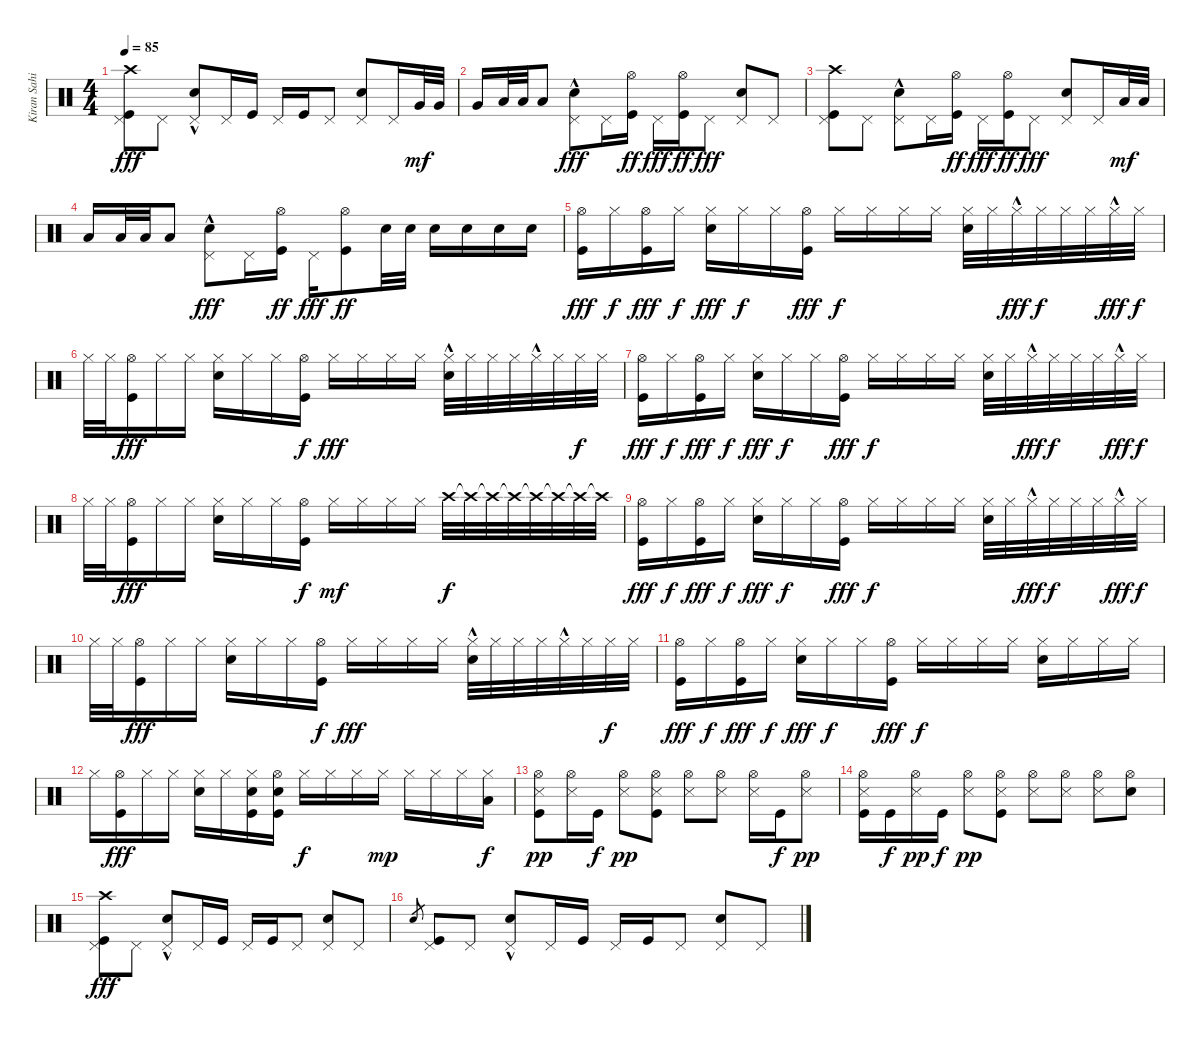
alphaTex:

\track ("Kiran Sahi - Drums" "Kiran Sahi") {instrument percussion}
\staff {score}
\articulation defaults
\ts (4 4)
\tempo 85
\clef neutral
\ks c
("Kick (hit)" "Pedal Hi-Hat (hit)" "Crash high (hit)").8{dy fff} "Pedal Hi-Hat (hit)".8 ("Pedal Hi-Hat (hit)" "Snare (hit) 2"{hac}).8 "Pedal Hi-Hat (hit)".16 "Kick (hit)".16 "Pedal Hi-Hat (hit)".16 "Kick (hit)".16 "Pedal Hi-Hat (hit)".8 ("Snare (hit) 2" "Pedal Hi-Hat (hit)").8 "Pedal Hi-Hat (hit)".16 "Very Low Tom (hit)".32{dy mf} "Very Low Tom (hit)".32 |
"Very Low Tom (hit)".16 "Low Floor Tom (hit)".32 "Low Floor Tom (hit)".32 "Low Floor Tom (hit)".8 ("Pedal Hi-Hat (hit)" "Snare (hit) 2"{hac}).8{dy fff} "Pedal Hi-Hat (hit)".16 ("Kick (hit)" "Hi-Hat (open)").16{dy ff} "Pedal Hi-Hat (hit)".16{dy fff} ("Kick (hit)" "Hi-Hat (open)").16{dy ff} "Pedal Hi-Hat (hit)".8{dy fff} ("Snare (hit) 2" "Pedal Hi-Hat (hit)").8 "Pedal Hi-Hat (hit)".8 |
("Kick (hit)" "Pedal Hi-Hat (hit)" "Crash high (hit)").8 "Pedal Hi-Hat (hit)".8 ("Pedal Hi-Hat (hit)" "Snare (hit) 2"{hac}).8 "Pedal Hi-Hat (hit)".16 ("Kick (hit)" "Hi-Hat (open)").16{dy ff} "Pedal Hi-Hat (hit)".16{dy fff} ("Kick (hit)" "Hi-Hat (open)").16{dy ff} "Pedal Hi-Hat (hit)".8{dy fff} ("Snare (hit) 2" "Pedal Hi-Hat (hit)").8 "Pedal Hi-Hat (hit)".16 "Low Floor Tom (hit)".32{dy mf} "Low Floor Tom (hit)".32 |
"Low Floor Tom (hit)".16 "Low Floor Tom (hit)".32 "Low Floor Tom (hit)".32 "Low Floor Tom (hit)".8 ("Pedal Hi-Hat (hit)" "Snare (hit) 2"{hac}).8{dy fff} "Pedal Hi-Hat (hit)".16 ("Kick (hit)" "Hi-Hat (open)").16{dy ff} "Pedal Hi-Hat (hit)".16{dy fff} ("Kick (hit)" "Hi-Hat (open)").8{dy ff} "Snare (hit) 2".32 "Snare (hit) 2".32 "Snare (hit) 2".16 "Snare (hit) 2".16 "Snare (hit) 2".16 "Snare (hit) 2".16 |
("Kick (hit)" "Hi-Hat (open)").16{dy fff} "Hi-Hat (closed)".16{dy f} ("Kick (hit)" "Hi-Hat (open)").16{dy fff} "Hi-Hat (closed)".16{dy f} ("Hi-Hat (closed)" "Snare (hit) 2").16{dy fff} "Hi-Hat (closed)".16{dy f} "Hi-Hat (closed)".16 ("Kick (hit)" "Hi-Hat (open)").16{dy fff} "Hi-Hat (closed)".16{dy f} "Hi-Hat (closed)".16 "Hi-Hat (closed)".16 "Hi-Hat (closed)".16 ("Hi-Hat (closed)" "Snare (hit) 2").32 "Hi-Hat (closed)".32 "Hi-Hat (closed)"{hac}.32{dy fff} "Hi-Hat (closed)".32{dy f} "Hi-Hat (closed)".32 "Hi-Hat (closed)".32 "Hi-Hat (closed)"{hac}.32{dy fff} "Hi-Hat (closed)".32{dy f} |
"Hi-Hat (closed)".32 "Hi-Hat (closed)".32 ("Kick (hit)" "Hi-Hat (open)").16{dy fff} "Hi-Hat (closed)".16 "Hi-Hat (closed)".16 ("Hi-Hat (closed)" "Snare (hit) 2").16 "Hi-Hat (closed)".16 "Hi-Hat (closed)".16 ("Hi-Hat (open)" "Kick (hit)").16{dy f} "Hi-Hat (closed)".16{dy fff} "Hi-Hat (closed)".16 "Hi-Hat (closed)".16 "Hi-Hat (closed)".16 ("Hi-Hat (closed)"{hac} "Snare (hit) 2").32 "Hi-Hat (closed)".32 "Hi-Hat (closed)".32 "Hi-Hat (closed)".32 "Hi-Hat (closed)"{hac}.32 "Hi-Hat (closed)".32 "Hi-Hat (closed)".32{dy f} "Hi-Hat (closed)".32 |
("Kick (hit)" "Hi-Hat (open)").16{dy fff} "Hi-Hat (closed)".16{dy f} ("Kick (hit)" "Hi-Hat (open)").16{dy fff} "Hi-Hat (closed)".16{dy f} ("Hi-Hat (closed)" "Snare (hit) 2").16{dy fff} "Hi-Hat (closed)".16{dy f} "Hi-Hat (closed)".16 ("Kick (hit)" "Hi-Hat (open)").16{dy fff} "Hi-Hat (closed)".16{dy f} "Hi-Hat (closed)".16 "Hi-Hat (closed)".16 "Hi-Hat (closed)".16 ("Hi-Hat (closed)" "Snare (hit) 2").32 "Hi-Hat (closed)".32 "Hi-Hat (closed)"{hac}.32{dy fff} "Hi-Hat (closed)".32{dy f} "Hi-Hat (closed)".32 "Hi-Hat (closed)".32 "Hi-Hat (closed)"{hac}.32{dy fff} "Hi-Hat (closed)".32{dy f} |
"Hi-Hat (closed)".32 "Hi-Hat (closed)".32 ("Kick (hit)" "Hi-Hat (open)").16{dy fff} "Hi-Hat (closed)".16 "Hi-Hat (closed)".16 ("Hi-Hat (closed)" "Snare (hit) 2").16 "Hi-Hat (closed)".16 "Hi-Hat (closed)".16 ("Hi-Hat (open)" "Kick (hit)").16{dy f} "Hi-Hat (closed)".16{dy mf} "Hi-Hat (closed)".16 "Hi-Hat (closed)".16 "Hi-Hat (closed)".16 "Crash high (hit)".32{dy f} "Crash high (hit)"{t}.32 "Crash high (hit)"{t}.32 "Crash high (hit)"{t}.32 "Crash high (hit)"{t}.32 "Crash high (hit)"{t}.32 "Crash high (hit)"{t}.32 "Crash high (hit)"{t}.32 |
("Kick (hit)" "Hi-Hat (open)").16{dy fff} "Hi-Hat (closed)".16{dy f} ("Kick (hit)" "Hi-Hat (open)").16{dy fff} "Hi-Hat (closed)".16{dy f} ("Hi-Hat (closed)" "Snare (hit) 2").16{dy fff} "Hi-Hat (closed)".16{dy f} "Hi-Hat (closed)".16 ("Kick (hit)" "Hi-Hat (open)").16{dy fff} "Hi-Hat (closed)".16{dy f} "Hi-Hat (closed)".16 "Hi-Hat (closed)".16 "Hi-Hat (closed)".16 ("Hi-Hat (closed)" "Snare (hit) 2").32 "Hi-Hat (closed)".32 "Hi-Hat (closed)"{hac}.32{dy fff} "Hi-Hat (closed)".32{dy f} "Hi-Hat (closed)".32 "Hi-Hat (closed)".32 "Hi-Hat (closed)"{hac}.32{dy fff} "Hi-Hat (closed)".32{dy f} |
"Hi-Hat (closed)".32 "Hi-Hat (closed)".32 ("Kick (hit)" "Hi-Hat (open)").16{dy fff} "Hi-Hat (closed)".16 "Hi-Hat (closed)".16 ("Hi-Hat (closed)" "Snare (hit) 2").16 "Hi-Hat (closed)".16 "Hi-Hat (closed)".16 ("Hi-Hat (open)" "Kick (hit)").16{dy f} "Hi-Hat (closed)".16{dy fff} "Hi-Hat (closed)".16 "Hi-Hat (closed)".16 "Hi-Hat (closed)".16 ("Hi-Hat (closed)"{hac} "Snare (hit) 2").32 "Hi-Hat (closed)".32 "Hi-Hat (closed)".32 "Hi-Hat (closed)".32 "Hi-Hat (closed)"{hac}.32 "Hi-Hat (closed)".32 "Hi-Hat (closed)".32{dy f} "Hi-Hat (closed)".32 |
("Kick (hit)" "Hi-Hat (open)").16{dy fff} "Hi-Hat (closed)".16{dy f} ("Kick (hit)" "Hi-Hat (open)").16{dy fff} "Hi-Hat (closed)".16{dy f} ("Hi-Hat (closed)" "Snare (hit) 2").16{dy fff} "Hi-Hat (closed)".16{dy f} "Hi-Hat (closed)".16 ("Kick (hit)" "Hi-Hat (open)").16{dy fff} "Hi-Hat (closed)".16{dy f} "Hi-Hat (closed)".16 "Hi-Hat (closed)".16 "Hi-Hat (closed)".16 ("Hi-Hat (closed)" "Snare (hit) 2").16 "Hi-Hat (closed)".16 "Hi-Hat (closed)".16 "Hi-Hat (closed)".16 |
"Hi-Hat (closed)".16 ("Kick (hit)" "Hi-Hat (open)").16{dy fff} "Hi-Hat (closed)".16 "Hi-Hat (closed)".16 ("Hi-Hat (closed)" "Snare (hit) 2").16 "Hi-Hat (closed)".16 ("Hi-Hat (closed)" "Snare (hit) 2" "Kick (hit)").16 ("Hi-Hat (open)" "Kick (hit)" "Snare (hit) 2").16 "Hi-Hat (closed)".16{dy f} "Hi-Hat (closed)".16 "Hi-Hat (closed)".16 "Hi-Hat (closed)".16{dy mp} "Hi-Hat (closed)".16 "Hi-Hat (closed)".16 "Hi-Hat (closed)".16 ("Hi-Hat (closed)" "Low Floor Tom (hit)").16{dy f} |
("Snare (side stick) 3" "Kick (hit)" "Hi-Hat (open)").8{dy pp} ("Snare (side stick) 3" "Hi-Hat (open)").16 "Kick (hit)".16{dy f} ("Snare (side stick) 3" "Hi-Hat (open)").8{dy pp} ("Snare (side stick) 3" "Hi-Hat (open)" "Kick (hit)").8 ("Snare (side stick) 3" "Hi-Hat (open)").8 ("Snare (side stick) 3" "Hi-Hat (open)").8 ("Snare (side stick) 3" "Hi-Hat (open)").16 "Kick (hit)".16{dy f} ("Snare (side stick) 3" "Hi-Hat (open)").8{dy pp} |
("Snare (side stick) 3" "Kick (hit)" "Hi-Hat (open)").16 "Kick (hit)".16{dy f} ("Snare (side stick) 3" "Hi-Hat (open)").16{dy pp} "Kick (hit)".16{dy f} ("Snare (side stick) 3" "Hi-Hat (open)").8{dy pp} ("Snare (side stick) 3" "Hi-Hat (open)" "Kick (hit)").8 ("Snare (side stick) 3" "Hi-Hat (open)").8 ("Snare (side stick) 3" "Hi-Hat (open)").8 ("Snare (side stick) 3" "Hi-Hat (open)").8 ("Snare (hit) 2" "Hi-Hat (open)").8 |
("Kick (hit)" "Pedal Hi-Hat (hit)" "Crash high (hit)").8{dy fff} "Pedal Hi-Hat (hit)".8 ("Pedal Hi-Hat (hit)" "Snare (hit) 2"{hac}).8 "Pedal Hi-Hat (hit)".16 "Kick (hit)".16 "Pedal Hi-Hat (hit)".16 "Kick (hit)".16 "Pedal Hi-Hat (hit)".8 ("Snare (hit) 2" "Pedal Hi-Hat (hit)").8 "Pedal Hi-Hat (hit)".8 |
"Snare (hit) 2".8{gr} ("Kick (hit)" "Pedal Hi-Hat (hit)").8 "Pedal Hi-Hat (hit)".8 ("Pedal Hi-Hat (hit)" "Snare (hit) 2"{hac}).8 "Pedal Hi-Hat (hit)".16 "Kick (hit)".16 "Pedal Hi-Hat (hit)".16 "Kick (hit)".16 "Pedal Hi-Hat (hit)".8 ("Snare (hit) 2" "Pedal Hi-Hat (hit)").8 "Pedal Hi-Hat (hit)".8
